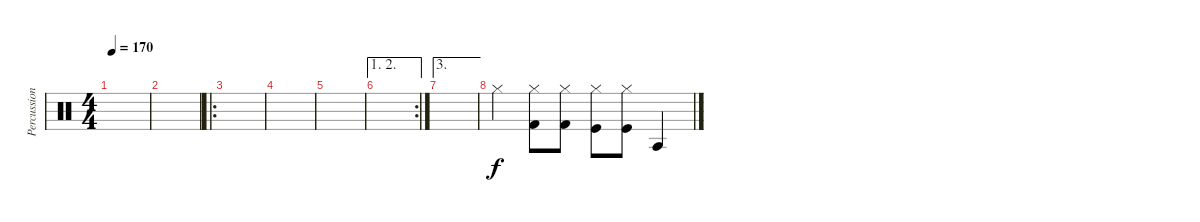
\track ("Percussions" "Percussion") {instrument percussion}
\staff {score}
\articulation defaults
\ts (4 4)
\tempo 170
\clef neutral
\ks c
|
|
\ro
|
|
|
\ae (1 2)
\rc 2
|
\ae 3
|
"Hi-Hat (closed)".4 ("Hi-Hat (closed)" "Kick (hit) 2").8 ("Hi-Hat (closed)" "Kick (hit) 2").8 ("Hi-Hat (closed)" "Kick (hit)").8 ("Hi-Hat (closed)" "Kick (hit)").8 "Agogo tow (hit)".4
